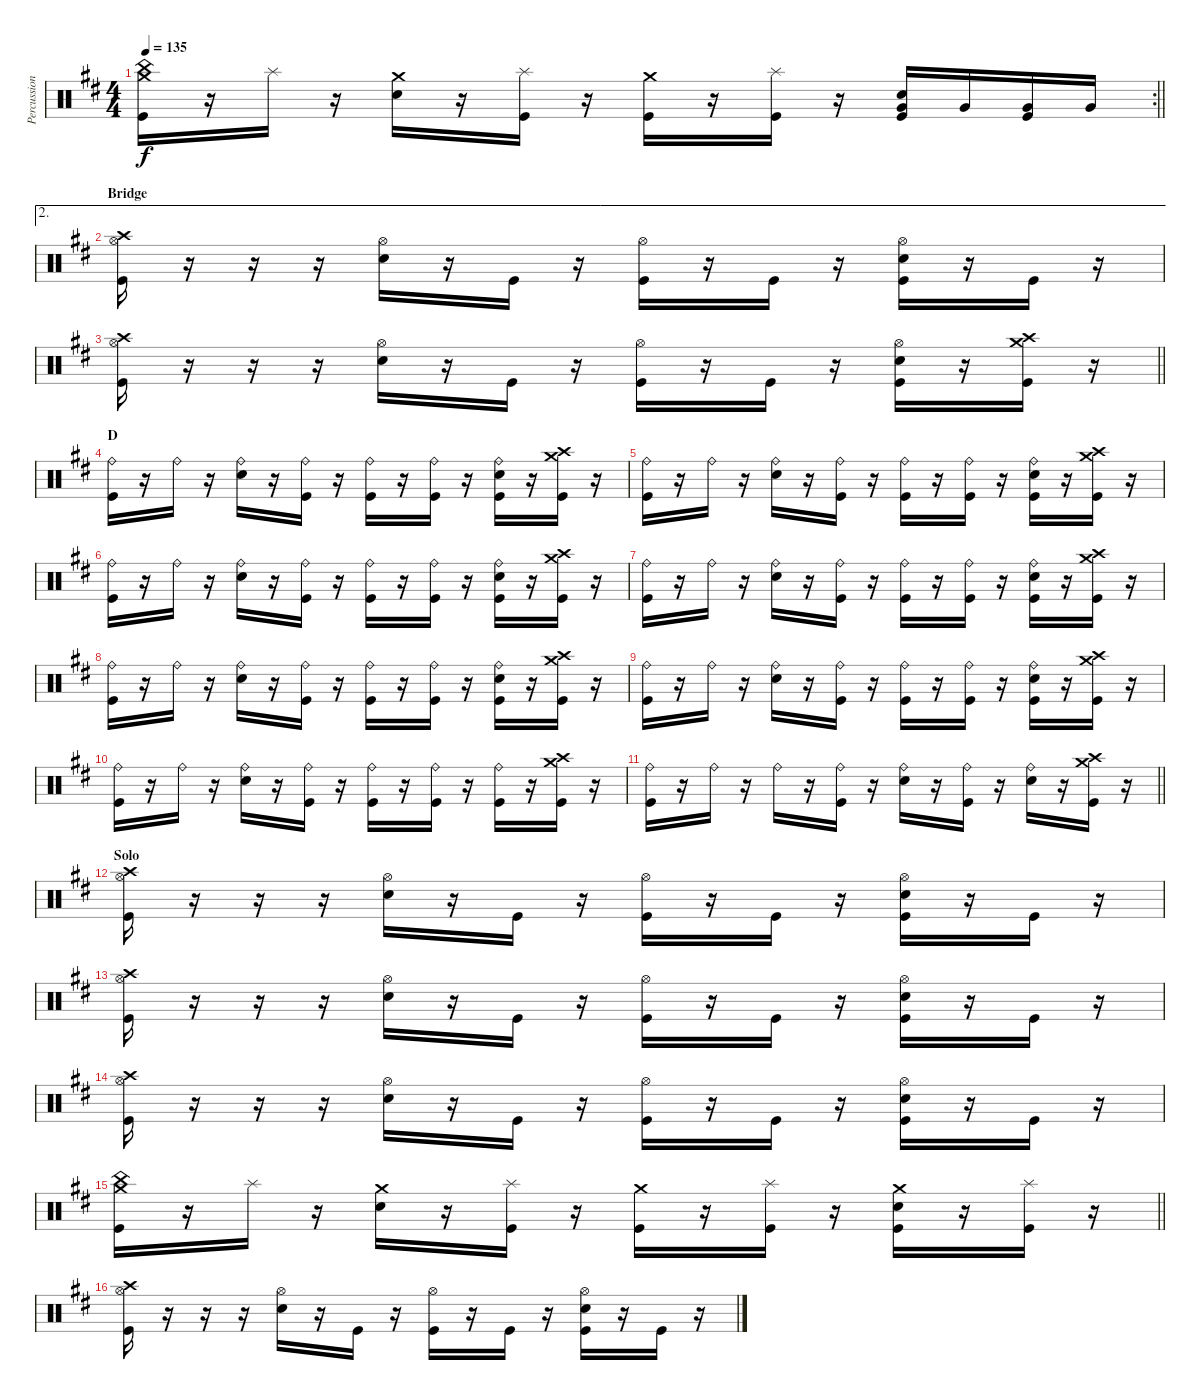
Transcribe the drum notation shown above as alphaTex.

\track ("Percussion" "Percussion") {instrument percussion}
\staff {score}
\articulation defaults
\rc 2
\ts (4 4)
\tempo 135
\clef neutral
\barLineRight lightlight
\ks bminor
("Crash medium (hit)" "China (hit)" "Kick (hit)").16{dy f} r.16 "Splash (hit)".16 r.16 ("Crash medium (hit)" "Electric Snare (hit)").16 r.16 ("Splash (hit)" "Kick (hit)").16 r.16 ("Crash medium (hit)" "Kick (hit)").16 r.16 ("Splash (hit)" "Kick (hit)").16 r.16 ("Very Low Tom (hit)" "Electric Snare (hit)" "Kick (hit)").16 "Very Low Tom (hit)".16 ("Very Low Tom (hit)" "Kick (hit)").16 "Very Low Tom (hit)".16 |
\ae 2
\section ("" "Bridge")
("Hi-Hat (open)" "Crash high (hit)" "Kick (hit)").16 r.16 r.16 r.16 ("Hi-Hat (open)" "Electric Snare (hit)").16 r.16 "Kick (hit)".16 r.16 ("Hi-Hat (open)" "Kick (hit)").16 r.16 "Kick (hit)".16 r.16 ("Hi-Hat (open)" "Electric Snare (hit)" "Kick (hit)").16 r.16 "Kick (hit)".16 r.16 |
\barLineRight lightlight
("Hi-Hat (open)" "Crash high (hit)" "Kick (hit)").16 r.16 r.16 r.16 ("Hi-Hat (open)" "Electric Snare (hit)").16 r.16 "Kick (hit)".16 r.16 ("Hi-Hat (open)" "Kick (hit)").16 r.16 "Kick (hit)".16 r.16 ("Hi-Hat (open)" "Electric Snare (hit)" "Kick (hit)").16 r.16 ("Crash high (hit)" "Crash medium (hit)" "Kick (hit)").16 r.16 |
\section ("" "D")
("Ride (bell)" "Kick (hit)").16 r.16 "Ride (bell)".16 r.16 ("Ride (bell)" "Electric Snare (hit)").16 r.16 ("Ride (bell)" "Kick (hit)").16 r.16 ("Ride (bell)" "Kick (hit)").16 r.16 ("Ride (bell)" "Kick (hit)").16 r.16 ("Ride (bell)" "Electric Snare (hit)" "Kick (hit)").16 r.16 ("Crash high (hit)" "Crash medium (hit)" "Kick (hit)").16 r.16 |
("Ride (bell)" "Kick (hit)").16 r.16 "Ride (bell)".16 r.16 ("Ride (bell)" "Electric Snare (hit)").16 r.16 ("Ride (bell)" "Kick (hit)").16 r.16 ("Ride (bell)" "Kick (hit)").16 r.16 ("Ride (bell)" "Kick (hit)").16 r.16 ("Ride (bell)" "Electric Snare (hit)" "Kick (hit)").16 r.16 ("Crash high (hit)" "Crash medium (hit)" "Kick (hit)").16 r.16 |
("Ride (bell)" "Kick (hit)").16 r.16 "Ride (bell)".16 r.16 ("Ride (bell)" "Electric Snare (hit)").16 r.16 ("Ride (bell)" "Kick (hit)").16 r.16 ("Ride (bell)" "Kick (hit)").16 r.16 ("Ride (bell)" "Kick (hit)").16 r.16 ("Ride (bell)" "Electric Snare (hit)" "Kick (hit)").16 r.16 ("Crash high (hit)" "Crash medium (hit)" "Kick (hit)").16 r.16 |
("Ride (bell)" "Kick (hit)").16 r.16 "Ride (bell)".16 r.16 ("Ride (bell)" "Electric Snare (hit)").16 r.16 ("Ride (bell)" "Kick (hit)").16 r.16 ("Ride (bell)" "Kick (hit)").16 r.16 ("Ride (bell)" "Kick (hit)").16 r.16 ("Ride (bell)" "Electric Snare (hit)" "Kick (hit)").16 r.16 ("Crash high (hit)" "Crash medium (hit)" "Kick (hit)").16 r.16 |
("Ride (bell)" "Kick (hit)").16 r.16 "Ride (bell)".16 r.16 ("Ride (bell)" "Electric Snare (hit)").16 r.16 ("Ride (bell)" "Kick (hit)").16 r.16 ("Ride (bell)" "Kick (hit)").16 r.16 ("Ride (bell)" "Kick (hit)").16 r.16 ("Ride (bell)" "Electric Snare (hit)" "Kick (hit)").16 r.16 ("Crash high (hit)" "Crash medium (hit)" "Kick (hit)").16 r.16 |
("Ride (bell)" "Kick (hit)").16 r.16 "Ride (bell)".16 r.16 ("Ride (bell)" "Electric Snare (hit)").16 r.16 ("Ride (bell)" "Kick (hit)").16 r.16 ("Ride (bell)" "Kick (hit)").16 r.16 ("Ride (bell)" "Kick (hit)").16 r.16 ("Ride (bell)" "Electric Snare (hit)" "Kick (hit)").16 r.16 ("Crash high (hit)" "Crash medium (hit)" "Kick (hit)").16 r.16 |
("Ride (bell)" "Kick (hit)").16 r.16 "Ride (bell)".16 r.16 ("Ride (bell)" "Electric Snare (hit)").16 r.16 ("Ride (bell)" "Kick (hit)").16 r.16 ("Ride (bell)" "Kick (hit)").16 r.16 ("Ride (bell)" "Kick (hit)").16 r.16 ("Ride (bell)" "Kick (hit)").16 r.16 ("Crash high (hit)" "Crash medium (hit)" "Kick (hit)").16 r.16 |
\barLineRight lightlight
("Ride (bell)" "Kick (hit)").16 r.16 "Ride (bell)".16 r.16 "Ride (bell)".16 r.16 ("Ride (bell)" "Kick (hit)").16 r.16 ("Ride (bell)" "Electric Snare (hit)").16 r.16 ("Ride (bell)" "Kick (hit)").16 r.16 ("Ride (bell)" "Electric Snare (hit)").16 r.16 ("Crash high (hit)" "Crash medium (hit)" "Kick (hit)").16 r.16 |
\section ("" "Solo")
("Hi-Hat (open)" "Crash high (hit)" "Kick (hit)").16 r.16 r.16 r.16 ("Hi-Hat (open)" "Electric Snare (hit)").16 r.16 "Kick (hit)".16 r.16 ("Hi-Hat (open)" "Kick (hit)").16 r.16 "Kick (hit)".16 r.16 ("Hi-Hat (open)" "Electric Snare (hit)" "Kick (hit)").16 r.16 "Kick (hit)".16 r.16 |
("Hi-Hat (open)" "Crash high (hit)" "Kick (hit)").16 r.16 r.16 r.16 ("Hi-Hat (open)" "Electric Snare (hit)").16 r.16 "Kick (hit)".16 r.16 ("Hi-Hat (open)" "Kick (hit)").16 r.16 "Kick (hit)".16 r.16 ("Hi-Hat (open)" "Electric Snare (hit)" "Kick (hit)").16 r.16 "Kick (hit)".16 r.16 |
("Hi-Hat (open)" "Crash high (hit)" "Kick (hit)").16 r.16 r.16 r.16 ("Hi-Hat (open)" "Electric Snare (hit)").16 r.16 "Kick (hit)".16 r.16 ("Hi-Hat (open)" "Kick (hit)").16 r.16 "Kick (hit)".16 r.16 ("Hi-Hat (open)" "Electric Snare (hit)" "Kick (hit)").16 r.16 "Kick (hit)".16 r.16 |
\barLineRight lightlight
("Crash medium (hit)" "China (hit)" "Kick (hit)").16 r.16 "Splash (hit)".16 r.16 ("Crash medium (hit)" "Electric Snare (hit)").16 r.16 ("Splash (hit)" "Kick (hit)").16 r.16 ("Crash medium (hit)" "Kick (hit)").16 r.16 ("Splash (hit)" "Kick (hit)").16 r.16 ("Crash medium (hit)" "Electric Snare (hit)" "Kick (hit)").16 r.16 ("Splash (hit)" "Kick (hit)").16 r.16 |
("Hi-Hat (open)" "Crash high (hit)" "Kick (hit)").16 r.16 r.16 r.16 ("Hi-Hat (open)" "Electric Snare (hit)").16 r.16 "Kick (hit)".16 r.16 ("Hi-Hat (open)" "Kick (hit)").16 r.16 "Kick (hit)".16 r.16 ("Hi-Hat (open)" "Electric Snare (hit)" "Kick (hit)").16 r.16 "Kick (hit)".16 r.16
